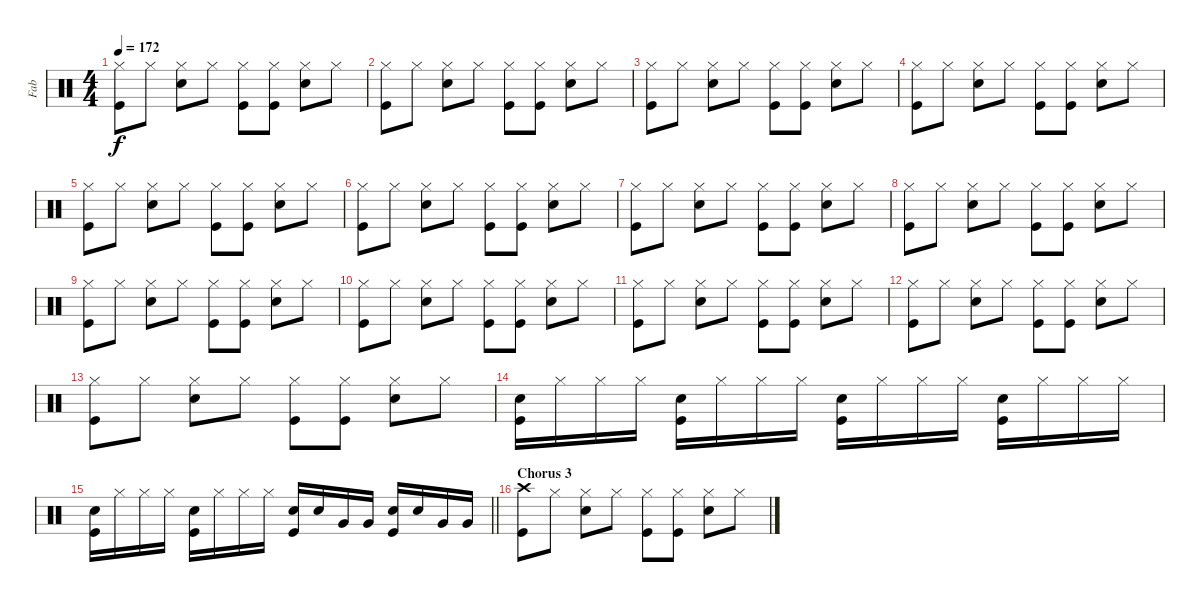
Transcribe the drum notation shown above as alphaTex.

\track ("Fab" "Fab") {instrument percussion}
\staff {score}
\articulation defaults
\ts (4 4)
\tempo 172
\clef neutral
\ks c
("Hi-Hat (closed)" "Kick (hit)").8{dy f} "Hi-Hat (closed)".8 ("Hi-Hat (closed)" "Snare (hit) 2").8 "Hi-Hat (closed)".8 ("Hi-Hat (closed)" "Kick (hit)").8 ("Hi-Hat (closed)" "Kick (hit)").8 ("Hi-Hat (closed)" "Snare (hit) 2").8 "Hi-Hat (closed)".8 |
("Hi-Hat (closed)" "Kick (hit)").8 "Hi-Hat (closed)".8 ("Hi-Hat (closed)" "Snare (hit) 2").8 "Hi-Hat (closed)".8 ("Hi-Hat (closed)" "Kick (hit)").8 ("Hi-Hat (closed)" "Kick (hit)").8 ("Hi-Hat (closed)" "Snare (hit) 2").8 "Hi-Hat (closed)".8 |
("Hi-Hat (closed)" "Kick (hit)").8 "Hi-Hat (closed)".8 ("Hi-Hat (closed)" "Snare (hit) 2").8 "Hi-Hat (closed)".8 ("Hi-Hat (closed)" "Kick (hit)").8 ("Hi-Hat (closed)" "Kick (hit)").8 ("Hi-Hat (closed)" "Snare (hit) 2").8 "Hi-Hat (closed)".8 |
("Hi-Hat (closed)" "Kick (hit)").8 "Hi-Hat (closed)".8 ("Hi-Hat (closed)" "Snare (hit) 2").8 "Hi-Hat (closed)".8 ("Hi-Hat (closed)" "Kick (hit)").8 ("Hi-Hat (closed)" "Kick (hit)").8 ("Hi-Hat (closed)" "Snare (hit) 2").8 "Hi-Hat (closed)".8 |
("Hi-Hat (closed)" "Kick (hit)").8 "Hi-Hat (closed)".8 ("Hi-Hat (closed)" "Snare (hit) 2").8 "Hi-Hat (closed)".8 ("Hi-Hat (closed)" "Kick (hit)").8 ("Hi-Hat (closed)" "Kick (hit)").8 ("Hi-Hat (closed)" "Snare (hit) 2").8 "Hi-Hat (closed)".8 |
("Hi-Hat (closed)" "Kick (hit)").8 "Hi-Hat (closed)".8 ("Hi-Hat (closed)" "Snare (hit) 2").8 "Hi-Hat (closed)".8 ("Hi-Hat (closed)" "Kick (hit)").8 ("Hi-Hat (closed)" "Kick (hit)").8 ("Hi-Hat (closed)" "Snare (hit) 2").8 "Hi-Hat (closed)".8 |
("Hi-Hat (closed)" "Kick (hit)").8 "Hi-Hat (closed)".8 ("Hi-Hat (closed)" "Snare (hit) 2").8 "Hi-Hat (closed)".8 ("Hi-Hat (closed)" "Kick (hit)").8 ("Hi-Hat (closed)" "Kick (hit)").8 ("Hi-Hat (closed)" "Snare (hit) 2").8 "Hi-Hat (closed)".8 |
("Hi-Hat (closed)" "Kick (hit)").8 "Hi-Hat (closed)".8 ("Hi-Hat (closed)" "Snare (hit) 2").8 "Hi-Hat (closed)".8 ("Hi-Hat (closed)" "Kick (hit)").8 ("Hi-Hat (closed)" "Kick (hit)").8 ("Hi-Hat (closed)" "Snare (hit) 2").8 "Hi-Hat (closed)".8 |
("Hi-Hat (closed)" "Kick (hit)").8 "Hi-Hat (closed)".8 ("Hi-Hat (closed)" "Snare (hit) 2").8 "Hi-Hat (closed)".8 ("Hi-Hat (closed)" "Kick (hit)").8 ("Hi-Hat (closed)" "Kick (hit)").8 ("Hi-Hat (closed)" "Snare (hit) 2").8 "Hi-Hat (closed)".8 |
("Hi-Hat (closed)" "Kick (hit)").8 "Hi-Hat (closed)".8 ("Hi-Hat (closed)" "Snare (hit) 2").8 "Hi-Hat (closed)".8 ("Hi-Hat (closed)" "Kick (hit)").8 ("Hi-Hat (closed)" "Kick (hit)").8 ("Hi-Hat (closed)" "Snare (hit) 2").8 "Hi-Hat (closed)".8 |
("Hi-Hat (closed)" "Kick (hit)").8 "Hi-Hat (closed)".8 ("Hi-Hat (closed)" "Snare (hit) 2").8 "Hi-Hat (closed)".8 ("Hi-Hat (closed)" "Kick (hit)").8 ("Hi-Hat (closed)" "Kick (hit)").8 ("Hi-Hat (closed)" "Snare (hit) 2").8 "Hi-Hat (closed)".8 |
("Hi-Hat (closed)" "Kick (hit)").8 "Hi-Hat (closed)".8 ("Hi-Hat (closed)" "Snare (hit) 2").8 "Hi-Hat (closed)".8 ("Hi-Hat (closed)" "Kick (hit)").8 ("Hi-Hat (closed)" "Kick (hit)").8 ("Hi-Hat (closed)" "Snare (hit) 2").8 "Hi-Hat (closed)".8 |
("Hi-Hat (closed)" "Kick (hit)").8 "Hi-Hat (closed)".8 ("Hi-Hat (closed)" "Snare (hit) 2").8 "Hi-Hat (closed)".8 ("Hi-Hat (closed)" "Kick (hit)").8 ("Hi-Hat (closed)" "Kick (hit)").8 ("Hi-Hat (closed)" "Snare (hit) 2").8 "Hi-Hat (closed)".8 |
("Snare (hit) 2" "Kick (hit)").16 "Hi-Hat (closed)".16 "Hi-Hat (closed)".16 "Hi-Hat (closed)".16 ("Snare (hit) 2" "Kick (hit)").16 "Hi-Hat (closed)".16 "Hi-Hat (closed)".16 "Hi-Hat (closed)".16 ("Snare (hit) 2" "Kick (hit)").16 "Hi-Hat (closed)".16 "Hi-Hat (closed)".16 "Hi-Hat (closed)".16 ("Snare (hit) 2" "Kick (hit)").16 "Hi-Hat (closed)".16 "Hi-Hat (closed)".16 "Hi-Hat (closed)".16 |
\barLineRight lightlight
("Snare (hit) 2" "Kick (hit)").16 "Hi-Hat (closed)".16 "Hi-Hat (closed)".16 "Hi-Hat (closed)".16 ("Snare (hit) 2" "Kick (hit)").16 "Hi-Hat (closed)".16 "Hi-Hat (closed)".16 "Hi-Hat (closed)".16 ("Snare (hit) 2" "Kick (hit)").16 "Snare (hit) 2".16 "Very Low Tom (hit)".16 "Very Low Tom (hit)".16 ("Snare (hit) 2" "Kick (hit)").16 "Snare (hit) 2".16 "Very Low Tom (hit)".16 "Very Low Tom (hit)".16 |
\section ("" "Chorus 3")
("Crash high (hit)" "Kick (hit)").8 "Hi-Hat (closed)".8 ("Hi-Hat (closed)" "Snare (hit) 2").8 "Hi-Hat (closed)".8 ("Hi-Hat (closed)" "Kick (hit)").8 ("Hi-Hat (closed)" "Kick (hit)").8 ("Hi-Hat (closed)" "Snare (hit) 2").8 "Hi-Hat (closed)".8
